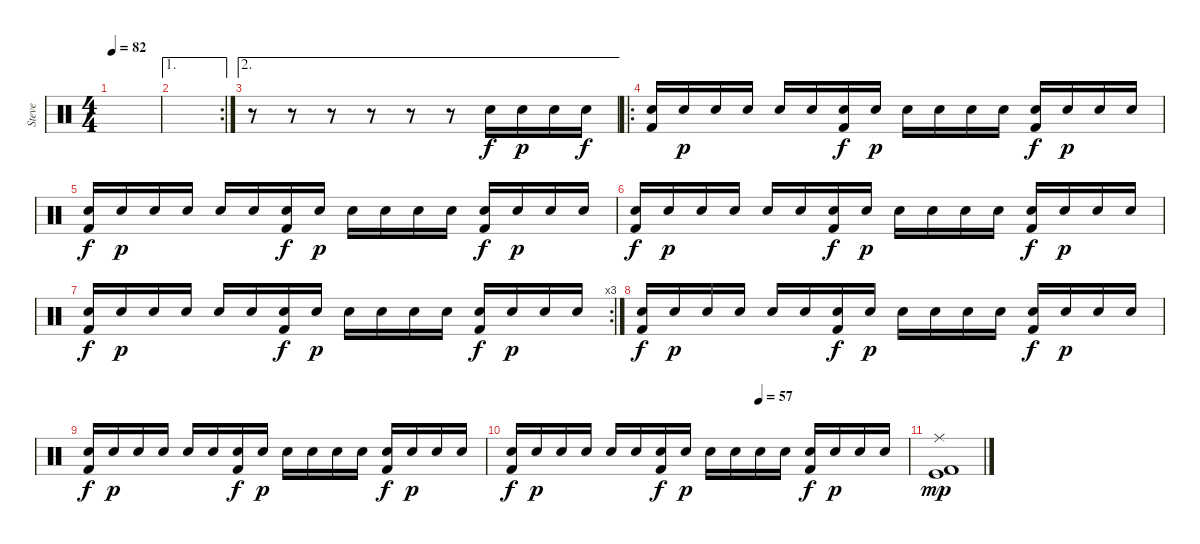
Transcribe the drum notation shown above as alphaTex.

\track ("Steve" "Steve") {instrument percussion}
\staff {score}
\articulation defaults
\ts (4 4)
\tempo 82
\clef neutral
\ks c
|
\ae 1
\rc 2
|
\ae 2
r.8 r.8 r.8 r.8 r.8 r.8 "Snare (hit) 2".16{dy f} "Snare (hit) 2".16{dy p} "Snare (hit) 2".16 "Snare (hit) 2".16{dy f} |
\ro
("Snare (hit) 2" "Kick (hit) 2").16 "Snare (hit) 2".16{dy p} "Snare (hit) 2".16 "Snare (hit) 2".16 "Snare (hit) 2".16 "Snare (hit) 2".16 ("Snare (hit) 2" "Kick (hit) 2").16{dy f} "Snare (hit) 2".16{dy p} "Snare (hit) 2".16 "Snare (hit) 2".16 "Snare (hit) 2".16 "Snare (hit) 2".16 ("Snare (hit) 2" "Kick (hit) 2").16{dy f} "Snare (hit) 2".16{dy p} "Snare (hit) 2".16 "Snare (hit) 2".16 |
("Snare (hit) 2" "Kick (hit) 2").16{dy f} "Snare (hit) 2".16{dy p} "Snare (hit) 2".16 "Snare (hit) 2".16 "Snare (hit) 2".16 "Snare (hit) 2".16 ("Snare (hit) 2" "Kick (hit) 2").16{dy f} "Snare (hit) 2".16{dy p} "Snare (hit) 2".16 "Snare (hit) 2".16 "Snare (hit) 2".16 "Snare (hit) 2".16 ("Snare (hit) 2" "Kick (hit) 2").16{dy f} "Snare (hit) 2".16{dy p} "Snare (hit) 2".16 "Snare (hit) 2".16 |
("Snare (hit) 2" "Kick (hit) 2").16{dy f} "Snare (hit) 2".16{dy p} "Snare (hit) 2".16 "Snare (hit) 2".16 "Snare (hit) 2".16 "Snare (hit) 2".16 ("Snare (hit) 2" "Kick (hit) 2").16{dy f} "Snare (hit) 2".16{dy p} "Snare (hit) 2".16 "Snare (hit) 2".16 "Snare (hit) 2".16 "Snare (hit) 2".16 ("Snare (hit) 2" "Kick (hit) 2").16{dy f} "Snare (hit) 2".16{dy p} "Snare (hit) 2".16 "Snare (hit) 2".16 |
\rc 3
("Snare (hit) 2" "Kick (hit) 2").16{dy f} "Snare (hit) 2".16{dy p} "Snare (hit) 2".16 "Snare (hit) 2".16 "Snare (hit) 2".16 "Snare (hit) 2".16 ("Snare (hit) 2" "Kick (hit) 2").16{dy f} "Snare (hit) 2".16{dy p} "Snare (hit) 2".16 "Snare (hit) 2".16 "Snare (hit) 2".16 "Snare (hit) 2".16 ("Snare (hit) 2" "Kick (hit) 2").16{dy f} "Snare (hit) 2".16{dy p} "Snare (hit) 2".16 "Snare (hit) 2".16 |
("Snare (hit) 2" "Kick (hit) 2").16{dy f} "Snare (hit) 2".16{dy p} "Snare (hit) 2".16 "Snare (hit) 2".16 "Snare (hit) 2".16 "Snare (hit) 2".16 ("Snare (hit) 2" "Kick (hit) 2").16{dy f} "Snare (hit) 2".16{dy p} "Snare (hit) 2".16 "Snare (hit) 2".16 "Snare (hit) 2".16 "Snare (hit) 2".16 ("Snare (hit) 2" "Kick (hit) 2").16{dy f} "Snare (hit) 2".16{dy p} "Snare (hit) 2".16 "Snare (hit) 2".16 |
("Snare (hit) 2" "Kick (hit) 2").16{dy f} "Snare (hit) 2".16{dy p} "Snare (hit) 2".16 "Snare (hit) 2".16 "Snare (hit) 2".16 "Snare (hit) 2".16 ("Snare (hit) 2" "Kick (hit) 2").16{dy f} "Snare (hit) 2".16{dy p} "Snare (hit) 2".16 "Snare (hit) 2".16 "Snare (hit) 2".16 "Snare (hit) 2".16 ("Snare (hit) 2" "Kick (hit) 2").16{dy f} "Snare (hit) 2".16{dy p} "Snare (hit) 2".16 "Snare (hit) 2".16 |
\tempo (57 0.625)
("Snare (hit) 2" "Kick (hit) 2").16{dy f} "Snare (hit) 2".16{dy p} "Snare (hit) 2".16 "Snare (hit) 2".16 "Snare (hit) 2".16 "Snare (hit) 2".16 ("Snare (hit) 2" "Kick (hit) 2").16{dy f} "Snare (hit) 2".16{dy p} "Snare (hit) 2".16 "Snare (hit) 2".16 "Snare (hit) 2".16 "Snare (hit) 2".16 ("Snare (hit) 2" "Kick (hit) 2").16{dy f} "Snare (hit) 2".16{dy p} "Snare (hit) 2".16 "Snare (hit) 2".16 |
("Ride (middle)" "Kick (hit) 2" "Kick (hit)").1{dy mp}
